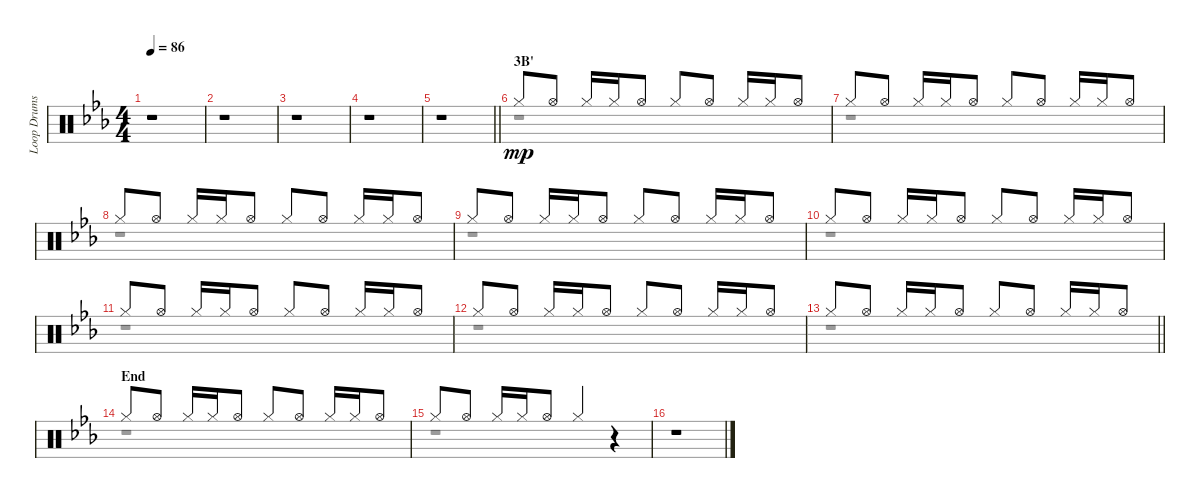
\track ("Loop Drums II" "Loop Drums") {instrument percussion}
\staff {score}
\articulation defaults
\voice
\ts (4 4)
\tempo 86
\clef neutral
\ks eb
r.1{dy mp} |
r.1 |
r.1 |
r.1 |
\barLineRight lightlight
r.1 |
\section ("" "3B'")
"Hi-Hat (closed)".8 "Hi-Hat (open)".8 "Hi-Hat (closed)".16 "Hi-Hat (closed)".16 "Hi-Hat (open)".8 "Hi-Hat (closed)".8 "Hi-Hat (open)".8 "Hi-Hat (closed)".16 "Hi-Hat (closed)".16 "Hi-Hat (open)".8 |
"Hi-Hat (closed)".8 "Hi-Hat (open)".8 "Hi-Hat (closed)".16 "Hi-Hat (closed)".16 "Hi-Hat (open)".8 "Hi-Hat (closed)".8 "Hi-Hat (open)".8 "Hi-Hat (closed)".16 "Hi-Hat (closed)".16 "Hi-Hat (open)".8 |
"Hi-Hat (closed)".8 "Hi-Hat (open)".8 "Hi-Hat (closed)".16 "Hi-Hat (closed)".16 "Hi-Hat (open)".8 "Hi-Hat (closed)".8 "Hi-Hat (open)".8 "Hi-Hat (closed)".16 "Hi-Hat (closed)".16 "Hi-Hat (open)".8 |
"Hi-Hat (closed)".8 "Hi-Hat (open)".8 "Hi-Hat (closed)".16 "Hi-Hat (closed)".16 "Hi-Hat (open)".8 "Hi-Hat (closed)".8 "Hi-Hat (open)".8 "Hi-Hat (closed)".16 "Hi-Hat (closed)".16 "Hi-Hat (open)".8 |
"Hi-Hat (closed)".8 "Hi-Hat (open)".8 "Hi-Hat (closed)".16 "Hi-Hat (closed)".16 "Hi-Hat (open)".8 "Hi-Hat (closed)".8 "Hi-Hat (open)".8 "Hi-Hat (closed)".16 "Hi-Hat (closed)".16 "Hi-Hat (open)".8 |
"Hi-Hat (closed)".8 "Hi-Hat (open)".8 "Hi-Hat (closed)".16 "Hi-Hat (closed)".16 "Hi-Hat (open)".8 "Hi-Hat (closed)".8 "Hi-Hat (open)".8 "Hi-Hat (closed)".16 "Hi-Hat (closed)".16 "Hi-Hat (open)".8 |
"Hi-Hat (closed)".8 "Hi-Hat (open)".8 "Hi-Hat (closed)".16 "Hi-Hat (closed)".16 "Hi-Hat (open)".8 "Hi-Hat (closed)".8 "Hi-Hat (open)".8 "Hi-Hat (closed)".16 "Hi-Hat (closed)".16 "Hi-Hat (open)".8 |
\barLineRight lightlight "Hi-Hat (closed)".8 "Hi-Hat (open)".8 "Hi-Hat (closed)".16 "Hi-Hat (closed)".16 "Hi-Hat (open)".8 "Hi-Hat (closed)".8 "Hi-Hat (open)".8 "Hi-Hat (closed)".16 "Hi-Hat (closed)".16 "Hi-Hat (open)".8
|
\section ("" "End")
"Hi-Hat (closed)".8 "Hi-Hat (open)".8 "Hi-Hat (closed)".16 "Hi-Hat (closed)".16 "Hi-Hat (open)".8 "Hi-Hat (closed)".8 "Hi-Hat (open)".8 "Hi-Hat (closed)".16 "Hi-Hat (closed)".16 "Hi-Hat (open)".8 |
"Hi-Hat (closed)".8 "Hi-Hat (open)".8 "Hi-Hat (closed)".16 "Hi-Hat (closed)".16 "Hi-Hat (open)".8 "Hi-Hat (closed)".4 r.4 |
r.1
\voice
\clef neutral
\ottava regular
\simile none
\ks eb
r.1{dy mp} |
r.1 |
r.1 |
r.1 |
\barLineRight lightlight
r.1 |
r.1 |
r.1 |
r.1 |
r.1 |
r.1 |
r.1 |
r.1 |
\barLineRight lightlight
r.1 |
r.1 |
r.1 |
r.1
